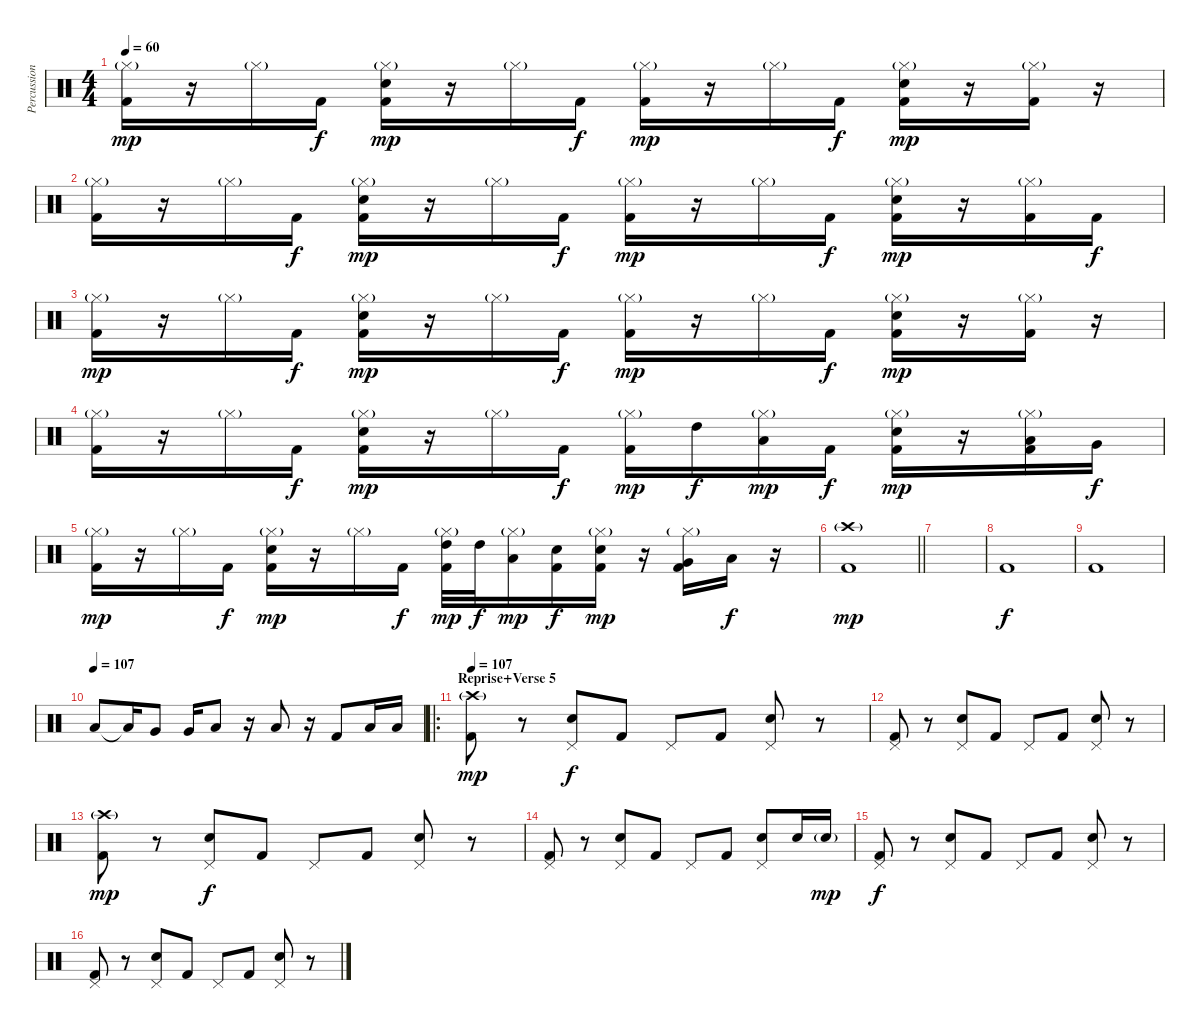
\track ("Percussion" "Percussion") {instrument percussion}
\staff {score}
\articulation defaults
\ts (4 4)
\tempo 60
\clef neutral
\ks c
("Hi-Hat (closed)"{g} "Kick (hit) 2").16{dy mp} r.16 "Hi-Hat (closed)"{g}.16 "Kick (hit) 2".16{dy f} ("Hi-Hat (closed)"{g} "Snare (hit) 2" "Kick (hit) 2").16{dy mp} r.16 "Hi-Hat (closed)"{g}.16 "Kick (hit) 2".16{dy f} ("Hi-Hat (closed)"{g} "Kick (hit) 2").16{dy mp} r.16 "Hi-Hat (closed)"{g}.16 "Kick (hit) 2".16{dy f} ("Hi-Hat (closed)"{g} "Snare (hit) 2" "Kick (hit) 2").16{dy mp} r.16 ("Hi-Hat (closed)"{g} "Kick (hit) 2").16 r.16 |
("Hi-Hat (closed)"{g} "Kick (hit) 2").16 r.16 "Hi-Hat (closed)"{g}.16 "Kick (hit) 2".16{dy f} ("Hi-Hat (closed)"{g} "Snare (hit) 2" "Kick (hit) 2").16{dy mp} r.16 "Hi-Hat (closed)"{g}.16 "Kick (hit) 2".16{dy f} ("Hi-Hat (closed)"{g} "Kick (hit) 2").16{dy mp} r.16 "Hi-Hat (closed)"{g}.16 "Kick (hit) 2".16{dy f} ("Hi-Hat (closed)"{g} "Snare (hit) 2" "Kick (hit) 2").16{dy mp} r.16 ("Hi-Hat (closed)"{g} "Kick (hit) 2").16 "Kick (hit) 2".16{dy f} |
("Hi-Hat (closed)"{g} "Kick (hit) 2").16{dy mp} r.16 "Hi-Hat (closed)"{g}.16 "Kick (hit) 2".16{dy f} ("Hi-Hat (closed)"{g} "Snare (hit) 2" "Kick (hit) 2").16{dy mp} r.16 "Hi-Hat (closed)"{g}.16 "Kick (hit) 2".16{dy f} ("Hi-Hat (closed)"{g} "Kick (hit) 2").16{dy mp} r.16 "Hi-Hat (closed)"{g}.16 "Kick (hit) 2".16{dy f} ("Hi-Hat (closed)"{g} "Snare (hit) 2" "Kick (hit) 2").16{dy mp} r.16 ("Hi-Hat (closed)"{g} "Kick (hit) 2").16 r.16 |
("Hi-Hat (closed)"{g} "Kick (hit) 2").16 r.16 "Hi-Hat (closed)"{g}.16 "Kick (hit) 2".16{dy f} ("Hi-Hat (closed)"{g} "Snare (hit) 2" "Kick (hit) 2").16{dy mp} r.16 "Hi-Hat (closed)"{g}.16 "Kick (hit) 2".16{dy f} ("Hi-Hat (closed)"{g} "Kick (hit) 2").16{dy mp} "High Tom (hit)".16{dy f balance 16} ("Hi-Hat (closed)"{g} "Low Tom (hit)").16{dy mp} "Kick (hit) 2".16{dy f} ("Hi-Hat (closed)"{g} "Snare (hit) 2" "Kick (hit) 2").16{dy mp balance 8} r.16 ("Hi-Hat (closed)"{g} "Low Tom (hit)" "Kick (hit) 2").16{balance 0} "Very Low Tom (hit)".16{dy f balance 16} |
("Hi-Hat (closed)"{g} "Kick (hit) 2").16{dy mp balance 8} r.16 "Hi-Hat (closed)"{g}.16 "Kick (hit) 2".16{dy f} ("Hi-Hat (closed)"{g} "Snare (hit) 2" "Kick (hit) 2").16{dy mp} r.16 "Hi-Hat (closed)"{g}.16 "Kick (hit) 2".16{dy f} ("Hi-Hat (closed)"{g} "High Tom (hit)" "Kick (hit) 2").32{dy mp balance 16} "High Tom (hit)".32{dy f} ("Hi-Hat (closed)"{g} "Low Tom (hit)").16{dy mp} ("Snare (hit) 2" "Kick (hit) 2").16{dy f balance 8} ("Hi-Hat (closed)"{g} "Snare (hit) 2" "Kick (hit) 2").16{dy mp} r.16{balance 0} ("Hi-Hat (closed)"{g} "Very Low Tom (hit)" "Kick (hit) 2").16 "Low Floor Tom (hit)".16{dy f} r.16 |
\barLineRight lightlight
("Crash high (hit)"{g} "Kick (hit) 2").1{dy mp balance 8} |
|
"Kick (hit) 2".1{dy f} |
"Kick (hit) 2".1 |
\tempo (107)
"Low Floor Tom (hit)".8{balance 15} "Low Tom (hit)"{t}.16 "Very Low Tom (hit)".8{balance 14} "Very Low Tom (hit)".16{balance 0} "Low Tom (hit)".8{balance 4} r.16 "Low Floor Tom (hit)".8{balance 8} r.16 "Kick (hit) 2".8 "Low Tom (hit)".16{balance 16} "Low Tom (hit)".16 |
\ro
\section ("" "Reprise+Verse 5")
\tempo 107
("Crash high (hit)"{g} "Kick (hit) 2").8{dy mp balance 8} r.8 ("Pedal Hi-Hat (hit)" "Snare (hit) 2").8{dy f} "Kick (hit) 2".8 "Pedal Hi-Hat (hit)".8 "Kick (hit) 2".8 ("Pedal Hi-Hat (hit)" "Snare (hit) 2").8 r.8 |
("Pedal Hi-Hat (hit)" "Kick (hit) 2").8 r.8 ("Pedal Hi-Hat (hit)" "Snare (hit) 2").8 "Kick (hit) 2".8 "Pedal Hi-Hat (hit)".8 "Kick (hit) 2".8 ("Pedal Hi-Hat (hit)" "Snare (hit) 2").8 r.8 |
("Crash high (hit)"{g} "Kick (hit) 2").8{dy mp balance 8} r.8 ("Pedal Hi-Hat (hit)" "Snare (hit) 2").8{dy f} "Kick (hit) 2".8 "Pedal Hi-Hat (hit)".8 "Kick (hit) 2".8 ("Pedal Hi-Hat (hit)" "Snare (hit) 2").8 r.8 |
("Pedal Hi-Hat (hit)" "Kick (hit) 2").8 r.8 ("Pedal Hi-Hat (hit)" "Snare (hit) 2").8 "Kick (hit) 2".8 "Pedal Hi-Hat (hit)".8 "Kick (hit) 2".8 ("Pedal Hi-Hat (hit)" "Snare (hit) 2").8 "Snare (hit) 2".16 "Snare (hit) 2"{g}.16{dy mp} |
("Pedal Hi-Hat (hit)" "Kick (hit) 2").8{dy f} r.8 ("Pedal Hi-Hat (hit)" "Snare (hit) 2").8 "Kick (hit) 2".8 "Pedal Hi-Hat (hit)".8 "Kick (hit) 2".8 ("Pedal Hi-Hat (hit)" "Snare (hit) 2").8 r.8 |
("Pedal Hi-Hat (hit)" "Kick (hit) 2").8 r.8 ("Pedal Hi-Hat (hit)" "Snare (hit) 2").8 "Kick (hit) 2".8 "Pedal Hi-Hat (hit)".8 "Kick (hit) 2".8 ("Pedal Hi-Hat (hit)" "Snare (hit) 2").8 r.8
